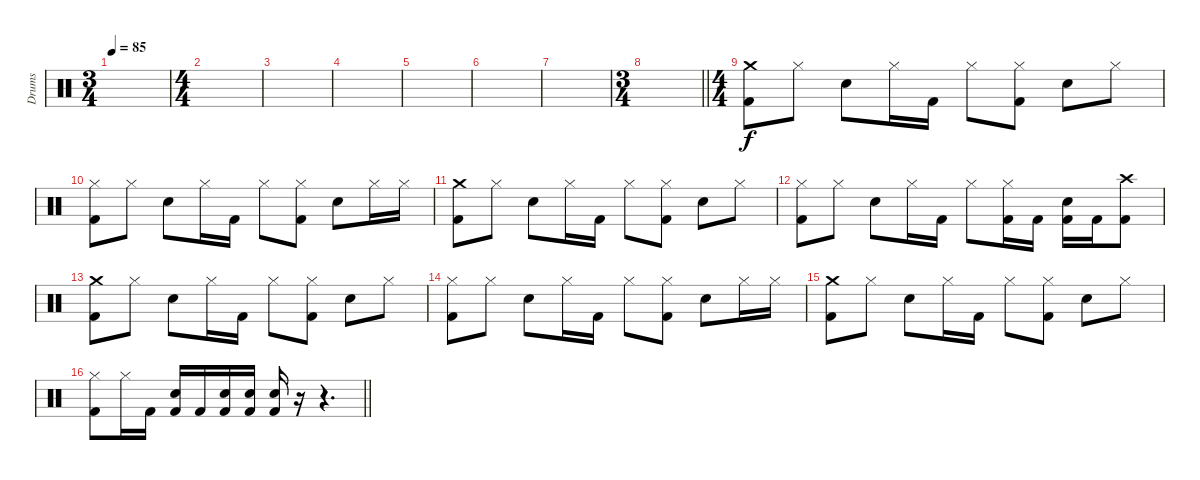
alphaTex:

\track ("Drums" "Drums") {instrument percussion}
\staff {score}
\articulation defaults
\ts (3 4)
\tempo 85
\clef neutral
\ks c
|
\ts (4 4)
|
|
|
|
|
|
\ts (3 4)
\barLineRight lightlight
|
\ts (4 4)
("Crash medium (hit)" "Kick (hit) 2").8 "Hi-Hat (closed)".8 "Snare (hit) 2".8 "Hi-Hat (closed)".16 "Kick (hit) 2".16 "Hi-Hat (closed)".8 ("Hi-Hat (closed)" "Kick (hit) 2").8 "Snare (hit) 2".8 "Hi-Hat (closed)".8 |
("Hi-Hat (closed)" "Kick (hit) 2").8 "Hi-Hat (closed)".8 "Snare (hit) 2".8 "Hi-Hat (closed)".16 "Kick (hit) 2".16 "Hi-Hat (closed)".8 ("Hi-Hat (closed)" "Kick (hit) 2").8 "Snare (hit) 2".8 "Hi-Hat (closed)".16 "Hi-Hat (closed)".16 |
("Crash medium (hit)" "Kick (hit) 2").8 "Hi-Hat (closed)".8 "Snare (hit) 2".8 "Hi-Hat (closed)".16 "Kick (hit) 2".16 "Hi-Hat (closed)".8 ("Hi-Hat (closed)" "Kick (hit) 2").8 "Snare (hit) 2".8 "Hi-Hat (closed)".8 |
("Hi-Hat (closed)" "Kick (hit) 2").8 "Hi-Hat (closed)".8 "Snare (hit) 2".8 "Hi-Hat (closed)".16 "Kick (hit) 2".16 "Hi-Hat (closed)".8 ("Hi-Hat (closed)" "Kick (hit) 2").16 "Kick (hit) 2".16 ("Snare (hit) 2" "Kick (hit) 2").16 "Kick (hit) 2".16 ("Crash high (hit)" "Kick (hit) 2").8 |
("Crash medium (hit)" "Kick (hit) 2").8 "Hi-Hat (closed)".8 "Snare (hit) 2".8 "Hi-Hat (closed)".16 "Kick (hit) 2".16 "Hi-Hat (closed)".8 ("Hi-Hat (closed)" "Kick (hit) 2").8 "Snare (hit) 2".8 "Hi-Hat (closed)".8 |
("Hi-Hat (closed)" "Kick (hit) 2").8 "Hi-Hat (closed)".8 "Snare (hit) 2".8 "Hi-Hat (closed)".16 "Kick (hit) 2".16 "Hi-Hat (closed)".8 ("Hi-Hat (closed)" "Kick (hit) 2").8 "Snare (hit) 2".8 "Hi-Hat (closed)".16 "Hi-Hat (closed)".16 |
("Crash medium (hit)" "Kick (hit) 2").8 "Hi-Hat (closed)".8 "Snare (hit) 2".8 "Hi-Hat (closed)".16 "Kick (hit) 2".16 "Hi-Hat (closed)".8 ("Hi-Hat (closed)" "Kick (hit) 2").8 "Snare (hit) 2".8 "Hi-Hat (closed)".8 |
\barLineRight lightlight
("Hi-Hat (closed)" "Kick (hit) 2").8 "Hi-Hat (closed)".16 "Kick (hit) 2".16 ("Snare (hit) 2" "Kick (hit) 2").16 "Kick (hit) 2".16 ("Snare (hit) 2" "Kick (hit) 2").16 ("Snare (hit) 2" "Kick (hit) 2").16 ("Snare (hit) 2" "Kick (hit) 2").16 r.16 r.4{d}
